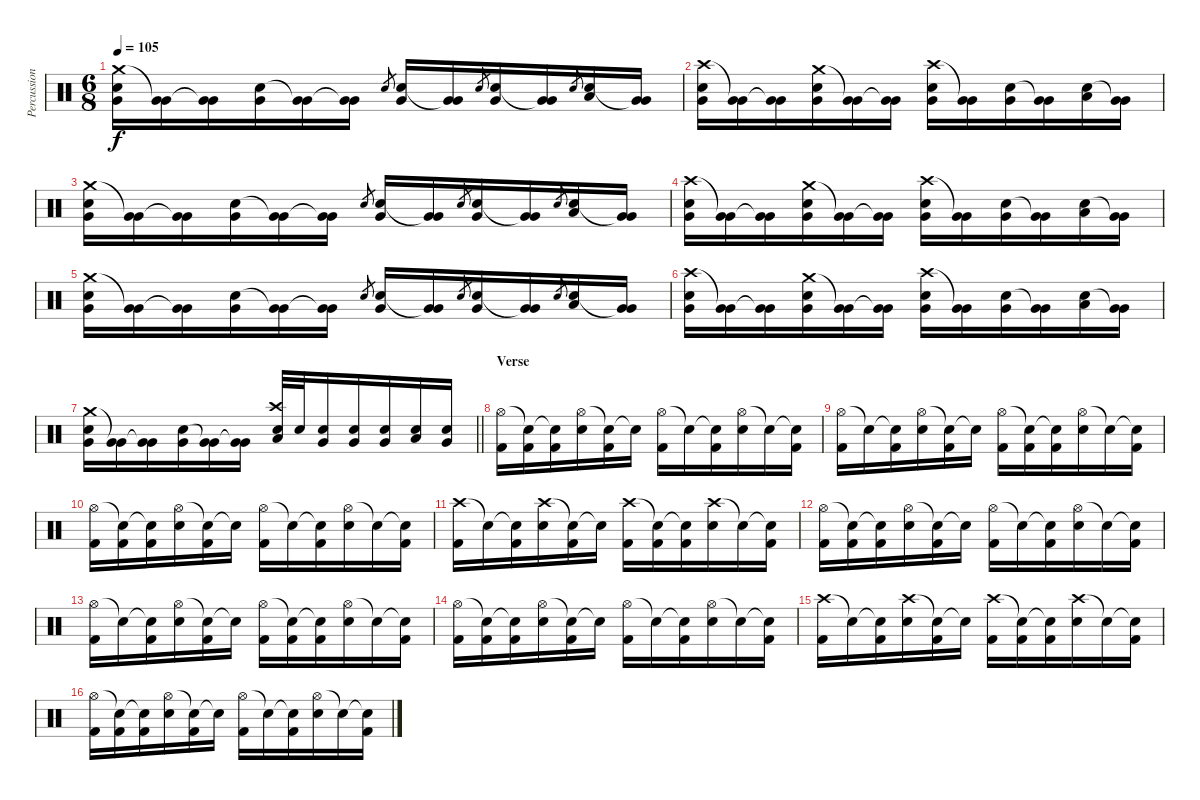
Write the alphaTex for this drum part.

\track ("Percussion" "Percussion") {instrument percussion}
\staff {score}
\articulation defaults
\ts (6 8)
\tempo 105
\clef neutral
\ks c
("Crash medium (hit)" "Electric Snare (hit)" "Very Low Tom (hit)").16{dy f} ("Very Low Tom (hit)"{t} "Very Low Tom (hit)").16 ("Very Low Tom (hit)"{t} "Very Low Tom (hit)").16 ("Electric Snare (hit)" "Very Low Tom (hit)").16 ("Very Low Tom (hit)"{t} "Very Low Tom (hit)").16 ("Very Low Tom (hit)"{t} "Very Low Tom (hit)").16 "Electric Snare (hit)".8{gr} ("Electric Snare (hit)" "Very Low Tom (hit)").16 ("Very Low Tom (hit)"{t} "Very Low Tom (hit)").16 "Electric Snare (hit)".8{gr} ("Electric Snare (hit)" "Very Low Tom (hit)").16 ("Very Low Tom (hit)"{t} "Very Low Tom (hit)").16 "Electric Snare (hit)".8{gr} ("Electric Snare (hit)" "Low Floor Tom (hit)").16 ("Very Low Tom (hit)"{t} "Very Low Tom (hit)").16 |
("Crash high (hit)" "Electric Snare (hit)" "Very Low Tom (hit)").16 ("Very Low Tom (hit)"{t} "Very Low Tom (hit)").16 ("Very Low Tom (hit)"{t} "Very Low Tom (hit)").16 ("Crash medium (hit)" "Electric Snare (hit)" "Very Low Tom (hit)").16 ("Very Low Tom (hit)"{t} "Very Low Tom (hit)").16 ("Very Low Tom (hit)"{t} "Very Low Tom (hit)").16 ("Crash high (hit)" "Electric Snare (hit)" "Very Low Tom (hit)").16 ("Very Low Tom (hit)"{t} "Very Low Tom (hit)").16 ("Electric Snare (hit)" "Very Low Tom (hit)").16 ("Very Low Tom (hit)"{t} "Very Low Tom (hit)").16 ("Electric Snare (hit)" "Low Floor Tom (hit)").16 ("Very Low Tom (hit)"{t} "Very Low Tom (hit)").16 |
("Crash medium (hit)" "Electric Snare (hit)" "Very Low Tom (hit)").16 ("Very Low Tom (hit)"{t} "Very Low Tom (hit)").16 ("Very Low Tom (hit)"{t} "Very Low Tom (hit)").16 ("Electric Snare (hit)" "Very Low Tom (hit)").16 ("Very Low Tom (hit)"{t} "Very Low Tom (hit)").16 ("Very Low Tom (hit)"{t} "Very Low Tom (hit)").16 "Electric Snare (hit)".8{gr} ("Electric Snare (hit)" "Very Low Tom (hit)").16 ("Very Low Tom (hit)"{t} "Very Low Tom (hit)").16 "Electric Snare (hit)".8{gr} ("Electric Snare (hit)" "Very Low Tom (hit)").16 ("Very Low Tom (hit)"{t} "Very Low Tom (hit)").16 "Electric Snare (hit)".8{gr} ("Electric Snare (hit)" "Low Floor Tom (hit)").16 ("Very Low Tom (hit)"{t} "Very Low Tom (hit)").16 |
("Crash high (hit)" "Electric Snare (hit)" "Very Low Tom (hit)").16 ("Very Low Tom (hit)"{t} "Very Low Tom (hit)").16 ("Very Low Tom (hit)"{t} "Very Low Tom (hit)").16 ("Crash medium (hit)" "Electric Snare (hit)" "Very Low Tom (hit)").16 ("Very Low Tom (hit)"{t} "Very Low Tom (hit)").16 ("Very Low Tom (hit)"{t} "Very Low Tom (hit)").16 ("Crash high (hit)" "Electric Snare (hit)" "Very Low Tom (hit)").16 ("Very Low Tom (hit)"{t} "Very Low Tom (hit)").16 ("Electric Snare (hit)" "Very Low Tom (hit)").16 ("Very Low Tom (hit)"{t} "Very Low Tom (hit)").16 ("Electric Snare (hit)" "Low Floor Tom (hit)").16 ("Very Low Tom (hit)"{t} "Very Low Tom (hit)").16 |
("Crash medium (hit)" "Electric Snare (hit)" "Very Low Tom (hit)").16 ("Very Low Tom (hit)"{t} "Very Low Tom (hit)").16 ("Very Low Tom (hit)"{t} "Very Low Tom (hit)").16 ("Electric Snare (hit)" "Very Low Tom (hit)").16 ("Very Low Tom (hit)"{t} "Very Low Tom (hit)").16 ("Very Low Tom (hit)"{t} "Very Low Tom (hit)").16 "Electric Snare (hit)".8{gr} ("Electric Snare (hit)" "Very Low Tom (hit)").16 ("Very Low Tom (hit)"{t} "Very Low Tom (hit)").16 "Electric Snare (hit)".8{gr} ("Electric Snare (hit)" "Very Low Tom (hit)").16 ("Very Low Tom (hit)"{t} "Very Low Tom (hit)").16 "Electric Snare (hit)".8{gr} ("Electric Snare (hit)" "Low Floor Tom (hit)").16 ("Very Low Tom (hit)"{t} "Very Low Tom (hit)").16 |
("Crash high (hit)" "Electric Snare (hit)" "Very Low Tom (hit)").16 ("Very Low Tom (hit)"{t} "Very Low Tom (hit)").16 ("Very Low Tom (hit)"{t} "Very Low Tom (hit)").16 ("Crash medium (hit)" "Electric Snare (hit)" "Very Low Tom (hit)").16 ("Very Low Tom (hit)"{t} "Very Low Tom (hit)").16 ("Very Low Tom (hit)"{t} "Very Low Tom (hit)").16 ("Crash high (hit)" "Electric Snare (hit)" "Very Low Tom (hit)").16 ("Very Low Tom (hit)"{t} "Very Low Tom (hit)").16 ("Electric Snare (hit)" "Very Low Tom (hit)").16 ("Very Low Tom (hit)"{t} "Very Low Tom (hit)").16 ("Electric Snare (hit)" "Low Floor Tom (hit)").16 ("Very Low Tom (hit)"{t} "Very Low Tom (hit)").16 |
\barLineRight lightlight
("Crash medium (hit)" "Electric Snare (hit)" "Very Low Tom (hit)").16 ("Very Low Tom (hit)"{t} "Very Low Tom (hit)").16 ("Very Low Tom (hit)"{t} "Very Low Tom (hit)").16 ("Electric Snare (hit)" "Very Low Tom (hit)").16 ("Very Low Tom (hit)"{t} "Very Low Tom (hit)").16 ("Very Low Tom (hit)"{t} "Very Low Tom (hit)").16 ("Crash high (hit)" "Electric Snare (hit)" "Low Tom (hit)").32 "Electric Snare (hit)".32 ("Electric Snare (hit)" "Very Low Tom (hit)").16 ("Electric Snare (hit)" "Very Low Tom (hit)").16 ("Electric Snare (hit)" "Very Low Tom (hit)").16 ("Electric Snare (hit)" "Low Floor Tom (hit)").16 ("Electric Snare (hit)" "Very Low Tom (hit)").16 |
\section ("" "Verse")
("Hi-Hat (open)" "Kick (hit) 2").16 ("Snare (hit)"{t} "Kick (hit) 2").16 ("Snare (hit)"{t} "Kick (hit) 2").16 ("Hi-Hat (open)" "Electric Snare (hit)").16 ("Snare (hit)"{t} "Kick (hit) 2").16 "Snare (hit)"{t}.16 ("Hi-Hat (open)" "Kick (hit) 2").16 "Snare (hit)"{t}.16 ("Snare (hit)"{t} "Kick (hit) 2").16 ("Hi-Hat (open)" "Electric Snare (hit)").16 "Snare (hit)"{t}.16 ("Snare (hit)"{t} "Kick (hit) 2").16 |
("Hi-Hat (open)" "Kick (hit) 2").16 "Snare (hit)"{t}.16 ("Snare (hit)"{t} "Kick (hit) 2").16 ("Hi-Hat (open)" "Electric Snare (hit)").16 ("Snare (hit)"{t} "Kick (hit) 2").16 "Snare (hit)"{t}.16 ("Hi-Hat (open)" "Kick (hit) 2").16 ("Snare (hit)"{t} "Kick (hit) 2").16 ("Snare (hit)"{t} "Kick (hit) 2").16 ("Hi-Hat (open)" "Electric Snare (hit)").16 "Snare (hit)"{t}.16 ("Snare (hit)"{t} "Kick (hit) 2").16 |
("Hi-Hat (open)" "Kick (hit) 2").16 ("Snare (hit)"{t} "Kick (hit) 2").16 ("Snare (hit)"{t} "Kick (hit) 2").16 ("Hi-Hat (open)" "Electric Snare (hit)").16 ("Snare (hit)"{t} "Kick (hit) 2").16 "Snare (hit)"{t}.16 ("Hi-Hat (open)" "Kick (hit) 2").16 "Snare (hit)"{t}.16 ("Snare (hit)"{t} "Kick (hit) 2").16 ("Hi-Hat (open)" "Electric Snare (hit)").16 "Snare (hit)"{t}.16 ("Snare (hit)"{t} "Kick (hit) 2").16 |
("Crash high (hit)" "Kick (hit) 2").16 "Snare (hit)"{t}.16 ("Snare (hit)"{t} "Kick (hit) 2").16 ("Crash high (hit)" "Electric Snare (hit)").16 ("Snare (hit)"{t} "Kick (hit) 2").16 "Snare (hit)"{t}.16 ("Crash high (hit)" "Kick (hit) 2").16 ("Snare (hit)"{t} "Kick (hit) 2").16 ("Snare (hit)"{t} "Kick (hit) 2").16 ("Crash high (hit)" "Electric Snare (hit)").16 "Snare (hit)"{t}.16 ("Snare (hit)"{t} "Kick (hit) 2").16 |
("Hi-Hat (open)" "Kick (hit) 2").16 ("Snare (hit)"{t} "Kick (hit) 2").16 ("Snare (hit)"{t} "Kick (hit) 2").16 ("Hi-Hat (open)" "Electric Snare (hit)").16 ("Snare (hit)"{t} "Kick (hit) 2").16 "Snare (hit)"{t}.16 ("Hi-Hat (open)" "Kick (hit) 2").16 "Snare (hit)"{t}.16 ("Snare (hit)"{t} "Kick (hit) 2").16 ("Hi-Hat (open)" "Electric Snare (hit)").16 "Snare (hit)"{t}.16 ("Snare (hit)"{t} "Kick (hit) 2").16 |
("Hi-Hat (open)" "Kick (hit) 2").16 "Snare (hit)"{t}.16 ("Snare (hit)"{t} "Kick (hit) 2").16 ("Hi-Hat (open)" "Electric Snare (hit)").16 ("Snare (hit)"{t} "Kick (hit) 2").16 "Snare (hit)"{t}.16 ("Hi-Hat (open)" "Kick (hit) 2").16 ("Snare (hit)"{t} "Kick (hit) 2").16 ("Snare (hit)"{t} "Kick (hit) 2").16 ("Hi-Hat (open)" "Electric Snare (hit)").16 "Snare (hit)"{t}.16 ("Snare (hit)"{t} "Kick (hit) 2").16 |
("Hi-Hat (open)" "Kick (hit) 2").16 ("Snare (hit)"{t} "Kick (hit) 2").16 ("Snare (hit)"{t} "Kick (hit) 2").16 ("Hi-Hat (open)" "Electric Snare (hit)").16 ("Snare (hit)"{t} "Kick (hit) 2").16 "Snare (hit)"{t}.16 ("Hi-Hat (open)" "Kick (hit) 2").16 "Snare (hit)"{t}.16 ("Snare (hit)"{t} "Kick (hit) 2").16 ("Hi-Hat (open)" "Electric Snare (hit)").16 "Snare (hit)"{t}.16 ("Snare (hit)"{t} "Kick (hit) 2").16 |
("Crash high (hit)" "Kick (hit) 2").16 "Snare (hit)"{t}.16 ("Snare (hit)"{t} "Kick (hit) 2").16 ("Crash high (hit)" "Electric Snare (hit)").16 ("Snare (hit)"{t} "Kick (hit) 2").16 "Snare (hit)"{t}.16 ("Crash high (hit)" "Kick (hit) 2").16 ("Snare (hit)"{t} "Kick (hit) 2").16 ("Snare (hit)"{t} "Kick (hit) 2").16 ("Crash high (hit)" "Electric Snare (hit)").16 "Snare (hit)"{t}.16 ("Snare (hit)"{t} "Kick (hit) 2").16 |
("Hi-Hat (open)" "Kick (hit) 2").16 ("Snare (hit)"{t} "Kick (hit) 2").16 ("Snare (hit)"{t} "Kick (hit) 2").16 ("Hi-Hat (open)" "Electric Snare (hit)").16 ("Snare (hit)"{t} "Kick (hit) 2").16 "Snare (hit)"{t}.16 ("Hi-Hat (open)" "Kick (hit) 2").16 "Snare (hit)"{t}.16 ("Snare (hit)"{t} "Kick (hit) 2").16 ("Hi-Hat (open)" "Electric Snare (hit)").16 "Snare (hit)"{t}.16 ("Snare (hit)"{t} "Kick (hit) 2").16
